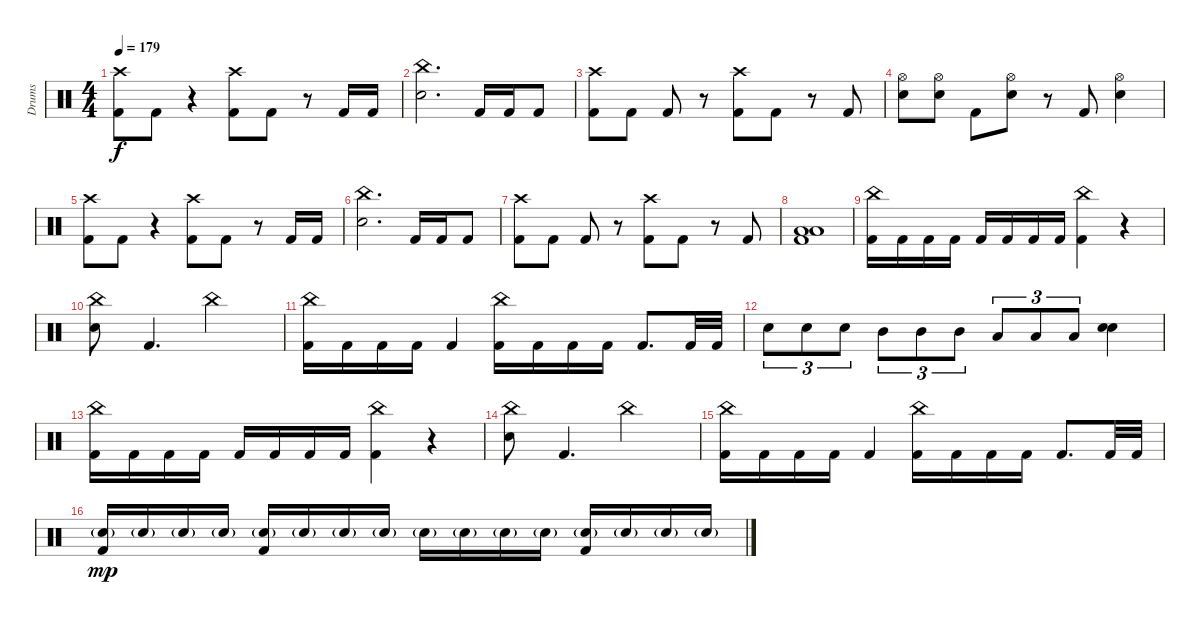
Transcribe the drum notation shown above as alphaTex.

\track ("Drums" "Drums") {instrument percussion}
\staff {score}
\articulation defaults
\ts (4 4)
\tempo 179
\clef neutral
\ks c
("Crash high (hit)" "Kick (hit) 2").8{dy f} "Kick (hit) 2".8 r.4 ("Crash high (hit)" "Kick (hit) 2").8 "Kick (hit) 2".8 r.8 "Kick (hit) 2".16 "Kick (hit) 2".16 |
("China (hit)" "Snare (hit) 2").2{d} "Kick (hit) 2".16 "Kick (hit) 2".16 "Kick (hit) 2".8 |
("Crash high (hit)" "Kick (hit) 2").8 "Kick (hit) 2".8 "Kick (hit) 2".8 r.8 ("Crash high (hit)" "Kick (hit) 2").8 "Kick (hit) 2".8 r.8 "Kick (hit) 2".8 |
("Hi-Hat (open)" "Snare (hit) 2").8 ("Hi-Hat (open)" "Snare (hit) 2").8 "Kick (hit) 2".8 ("Hi-Hat (open)" "Snare (hit) 2").8 r.8 "Kick (hit) 2".8 ("Hi-Hat (open)" "Snare (hit) 2").4 |
("Crash high (hit)" "Kick (hit) 2").8 "Kick (hit) 2".8 r.4 ("Crash high (hit)" "Kick (hit) 2").8 "Kick (hit) 2".8 r.8 "Kick (hit) 2".16 "Kick (hit) 2".16 |
("China (hit)" "Snare (hit) 2").2{d} "Kick (hit) 2".16 "Kick (hit) 2".16 "Kick (hit) 2".8 |
("Crash high (hit)" "Kick (hit) 2").8 "Kick (hit) 2".8 "Kick (hit) 2".8 r.8 ("Crash high (hit)" "Kick (hit) 2").8 "Kick (hit) 2".8 r.8 "Kick (hit) 2".8 |
("Low Floor Tom (hit)" "Low Tom (hit)" "Kick (hit) 2").1 |
("China (hit)" "Kick (hit) 2").16 "Kick (hit) 2".16 "Kick (hit) 2".16 "Kick (hit) 2".16 "Kick (hit) 2".16 "Kick (hit) 2".16 "Kick (hit) 2".16 "Kick (hit) 2".16 ("China (hit)" "Kick (hit) 2").4 r.4 |
("China (hit)" "Snare (hit) 2").8 "Kick (hit) 2".4{d} "China (hit)".2 |
("China (hit)" "Kick (hit) 2").16 "Kick (hit) 2".16 "Kick (hit) 2".16 "Kick (hit) 2".16 "Kick (hit) 2".4 ("China (hit)" "Kick (hit) 2").16 "Kick (hit) 2".16 "Kick (hit) 2".16 "Kick (hit) 2".16 "Kick (hit) 2".8{d} "Kick (hit) 2".32 "Kick (hit) 2".32 |
"Snare (hit) 2".8{tu (3 2)} "Snare (hit) 2".8{tu (3 2)} "Snare (hit) 2".8{tu (3 2)} "Mid Tom (hit)".8{tu (3 2)} "Mid Tom (hit)".8{tu (3 2)} "Mid Tom (hit)".8{tu (3 2)} "Low Tom (hit)".8{tu (3 2)} "Low Tom (hit)".8{tu (3 2)} "Low Tom (hit)".8{tu (3 2)} ("Snare (hit) 2" "Snare (hit) 2").4 |
("China (hit)" "Kick (hit) 2").16 "Kick (hit) 2".16 "Kick (hit) 2".16 "Kick (hit) 2".16 "Kick (hit) 2".16 "Kick (hit) 2".16 "Kick (hit) 2".16 "Kick (hit) 2".16 ("China (hit)" "Kick (hit) 2").4 r.4 |
("China (hit)" "Snare (hit) 2").8 "Kick (hit) 2".4{d} "China (hit)".2 |
("China (hit)" "Kick (hit) 2").16 "Kick (hit) 2".16 "Kick (hit) 2".16 "Kick (hit) 2".16 "Kick (hit) 2".4 ("China (hit)" "Kick (hit) 2").16 "Kick (hit) 2".16 "Kick (hit) 2".16 "Kick (hit) 2".16 "Kick (hit) 2".8{d} "Kick (hit) 2".32 "Kick (hit) 2".32 |
("Snare (hit) 2"{g} "Kick (hit) 2").16{dy mp} "Snare (hit) 2"{g}.16 "Snare (hit) 2"{g}.16 "Snare (hit) 2"{g}.16 ("Snare (hit) 2"{g} "Kick (hit) 2").16 "Snare (hit) 2"{g}.16 "Snare (hit) 2"{g}.16 "Snare (hit) 2"{g}.16 "Snare (hit) 2"{g}.16 "Snare (hit) 2"{g}.16 "Snare (hit) 2"{g}.16 "Snare (hit) 2"{g}.16 ("Snare (hit) 2"{g} "Kick (hit) 2").16 "Snare (hit) 2"{g}.16 "Snare (hit) 2"{g}.16 "Snare (hit) 2"{g}.16
